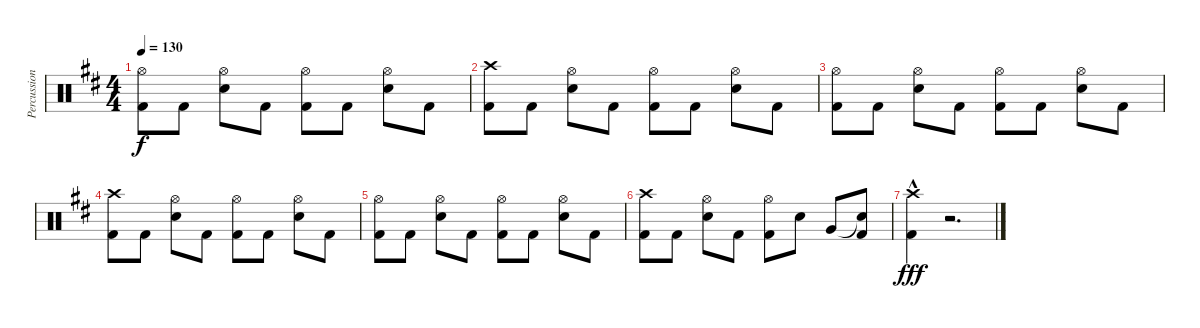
\track ("Percussion" "Percussion") {instrument percussion}
\staff {score}
\articulation defaults
\ts (4 4)
\tempo 130
\clef neutral
\ks d
("Hi-Hat (open)" "Kick (hit) 2").8{dy f} "Kick (hit) 2".8 ("Hi-Hat (open)" "Snare (hit) 2").8 "Kick (hit) 2".8 ("Hi-Hat (open)" "Kick (hit) 2").8 "Kick (hit) 2".8 ("Hi-Hat (open)" "Snare (hit) 2").8 "Kick (hit) 2".8 |
("Crash high (hit)" "Kick (hit) 2").8 "Kick (hit) 2".8 ("Hi-Hat (open)" "Snare (hit) 2").8 "Kick (hit) 2".8 ("Hi-Hat (open)" "Kick (hit) 2").8 "Kick (hit) 2".8 ("Hi-Hat (open)" "Snare (hit) 2").8 "Kick (hit) 2".8 |
("Hi-Hat (open)" "Kick (hit) 2").8 "Kick (hit) 2".8 ("Hi-Hat (open)" "Snare (hit) 2").8 "Kick (hit) 2".8 ("Hi-Hat (open)" "Kick (hit) 2").8 "Kick (hit) 2".8 ("Hi-Hat (open)" "Snare (hit) 2").8 "Kick (hit) 2".8 |
("Crash high (hit)" "Kick (hit) 2").8 "Kick (hit) 2".8 ("Hi-Hat (open)" "Snare (hit) 2").8 "Kick (hit) 2".8 ("Hi-Hat (open)" "Kick (hit) 2").8 "Kick (hit) 2".8 ("Hi-Hat (open)" "Snare (hit) 2").8 "Kick (hit) 2".8 |
("Hi-Hat (open)" "Kick (hit) 2").8 "Kick (hit) 2".8 ("Hi-Hat (open)" "Snare (hit) 2").8 "Kick (hit) 2".8 ("Hi-Hat (open)" "Kick (hit) 2").8 "Kick (hit) 2".8 ("Hi-Hat (open)" "Snare (hit) 2").8 "Kick (hit) 2".8 |
("Crash high (hit)" "Kick (hit) 2").8 "Kick (hit) 2".8 ("Hi-Hat (open)" "Snare (hit) 2").8 "Kick (hit) 2".8 ("Hi-Hat (open)" "Kick (hit) 2").8 "Snare (hit) 2".8 "Very Low Tom (hit)".8 ("Snare (hit)"{t} "Kick (hit) 2").8 |
("Crash high (hit)" "Kick (hit) 2"{hac}).4{dy fff} r.2{d}
